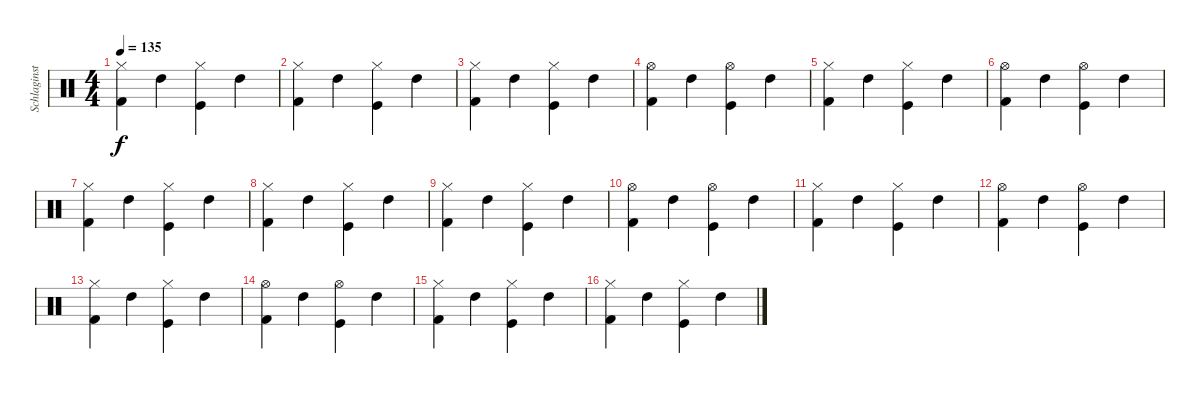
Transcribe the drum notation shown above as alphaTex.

\track ("Schlaginstrumente - Auswahl" "Schlaginst") {instrument percussion}
\staff {score}
\articulation defaults
\ts (4 4)
\tempo 135
\clef neutral
\ks c
("Kick (hit) 2" "Hi-Hat (closed)").4{dy f} "High Tom (hit)".4 ("Kick (hit)" "Hi-Hat (closed)").4 "High Tom (hit)".4 |
("Kick (hit) 2" "Hi-Hat (closed)").4 "High Tom (hit)".4 ("Kick (hit)" "Hi-Hat (closed)").4 "High Tom (hit)".4 |
("Kick (hit) 2" "Hi-Hat (closed)").4 "High Tom (hit)".4 ("Kick (hit)" "Hi-Hat (closed)").4 "High Tom (hit)".4 |
("Kick (hit) 2" "Hi-Hat (open)").4 "High Tom (hit)".4 ("Kick (hit)" "Hi-Hat (open)").4 "High Tom (hit)".4 |
("Kick (hit) 2" "Hi-Hat (closed)").4 "High Tom (hit)".4 ("Kick (hit)" "Hi-Hat (closed)").4 "High Tom (hit)".4 |
("Kick (hit) 2" "Hi-Hat (open)").4 "High Tom (hit)".4 ("Kick (hit)" "Hi-Hat (open)").4 "High Tom (hit)".4 |
("Kick (hit) 2" "Hi-Hat (closed)").4 "High Tom (hit)".4 ("Kick (hit)" "Hi-Hat (closed)").4 "High Tom (hit)".4 |
("Kick (hit) 2" "Hi-Hat (closed)").4 "High Tom (hit)".4 ("Kick (hit)" "Hi-Hat (closed)").4 "High Tom (hit)".4 |
("Kick (hit) 2" "Hi-Hat (closed)").4 "High Tom (hit)".4 ("Kick (hit)" "Hi-Hat (closed)").4 "High Tom (hit)".4 |
("Kick (hit) 2" "Hi-Hat (open)").4 "High Tom (hit)".4 ("Kick (hit)" "Hi-Hat (open)").4 "High Tom (hit)".4 |
("Kick (hit) 2" "Hi-Hat (closed)").4 "High Tom (hit)".4 ("Kick (hit)" "Hi-Hat (closed)").4 "High Tom (hit)".4 |
("Kick (hit) 2" "Hi-Hat (open)").4 "High Tom (hit)".4 ("Kick (hit)" "Hi-Hat (open)").4 "High Tom (hit)".4 |
("Kick (hit) 2" "Hi-Hat (closed)").4 "High Tom (hit)".4 ("Kick (hit)" "Hi-Hat (closed)").4 "High Tom (hit)".4 |
("Kick (hit) 2" "Hi-Hat (open)").4 "High Tom (hit)".4 ("Kick (hit)" "Hi-Hat (open)").4 "High Tom (hit)".4 |
("Kick (hit) 2" "Hi-Hat (closed)").4 "High Tom (hit)".4 ("Kick (hit)" "Hi-Hat (closed)").4 "High Tom (hit)".4 |
("Kick (hit) 2" "Hi-Hat (closed)").4 "High Tom (hit)".4 ("Kick (hit)" "Hi-Hat (closed)").4 "High Tom (hit)".4
